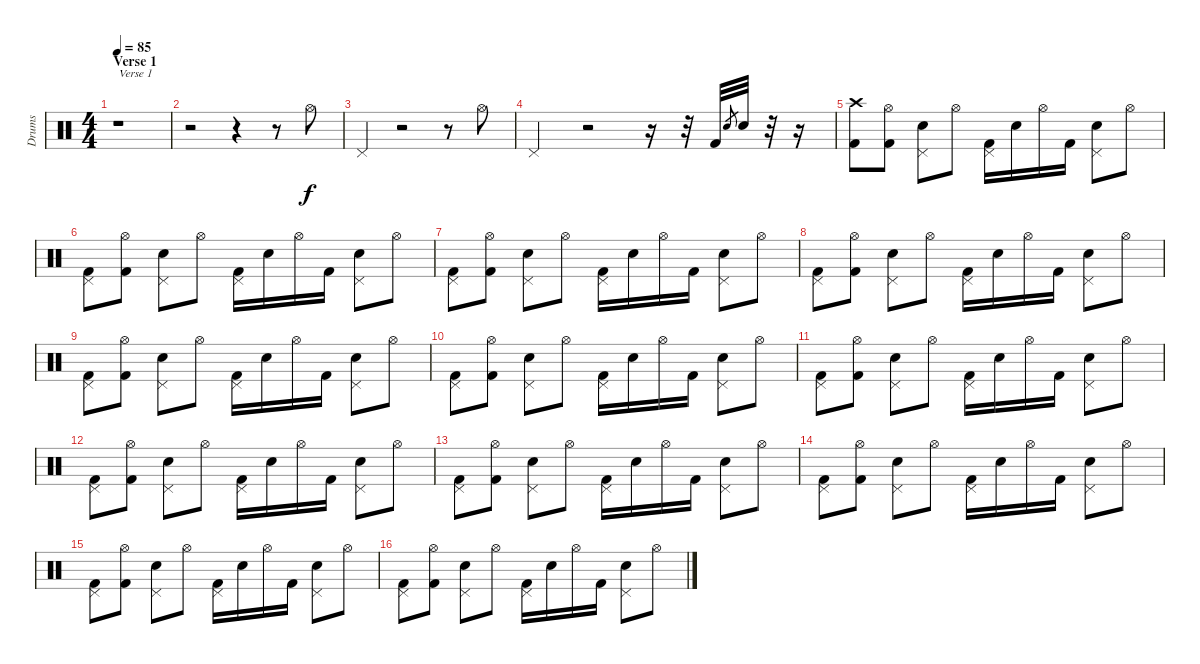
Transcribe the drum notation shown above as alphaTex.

\track ("Drums" "Drums") {instrument percussion}
\staff {score}
\articulation defaults
\ts (4 4)
\section ("" "Verse 1")
\tempo 85
\clef neutral
\ks c
r.1{txt "Verse 1" dy f} |
r.2 r.4 r.8 "Hi-Hat (open)".8 |
"Pedal Hi-Hat (hit)".4 r.2 r.8 "Hi-Hat (open)".8 |
"Pedal Hi-Hat (hit)".4 r.2 r.16 r.32 "Kick (hit) 2".32 "Electric Snare (hit)".8{gr} "Electric Snare (hit)".32 r.32 r.16 |
("Crash high (hit)" "Kick (hit) 2").8 ("Hi-Hat (open)" "Kick (hit) 2").8 ("Electric Snare (hit)" "Pedal Hi-Hat (hit)").8 "Hi-Hat (open)".8 ("Pedal Hi-Hat (hit)" "Kick (hit) 2").16 "Electric Snare (hit)".16 "Hi-Hat (open)".16 "Kick (hit) 2".16 ("Electric Snare (hit)" "Pedal Hi-Hat (hit)").8 "Hi-Hat (open)".8 |
("Pedal Hi-Hat (hit)" "Kick (hit) 2").8 ("Hi-Hat (open)" "Kick (hit) 2").8 ("Electric Snare (hit)" "Pedal Hi-Hat (hit)").8 "Hi-Hat (open)".8 ("Pedal Hi-Hat (hit)" "Kick (hit) 2").16 "Electric Snare (hit)".16 "Hi-Hat (open)".16 "Kick (hit) 2".16 ("Electric Snare (hit)" "Pedal Hi-Hat (hit)").8 "Hi-Hat (open)".8 |
("Pedal Hi-Hat (hit)" "Kick (hit) 2").8 ("Hi-Hat (open)" "Kick (hit) 2").8 ("Electric Snare (hit)" "Pedal Hi-Hat (hit)").8 "Hi-Hat (open)".8 ("Pedal Hi-Hat (hit)" "Kick (hit) 2").16 "Electric Snare (hit)".16 "Hi-Hat (open)".16 "Kick (hit) 2".16 ("Electric Snare (hit)" "Pedal Hi-Hat (hit)").8 "Hi-Hat (open)".8 |
("Pedal Hi-Hat (hit)" "Kick (hit) 2").8 ("Hi-Hat (open)" "Kick (hit) 2").8 ("Electric Snare (hit)" "Pedal Hi-Hat (hit)").8 "Hi-Hat (open)".8 ("Pedal Hi-Hat (hit)" "Kick (hit) 2").16 "Electric Snare (hit)".16 "Hi-Hat (open)".16 "Kick (hit) 2".16 ("Electric Snare (hit)" "Pedal Hi-Hat (hit)").8 "Hi-Hat (open)".8 |
("Pedal Hi-Hat (hit)" "Kick (hit) 2").8 ("Hi-Hat (open)" "Kick (hit) 2").8 ("Electric Snare (hit)" "Pedal Hi-Hat (hit)").8 "Hi-Hat (open)".8 ("Pedal Hi-Hat (hit)" "Kick (hit) 2").16 "Electric Snare (hit)".16 "Hi-Hat (open)".16 "Kick (hit) 2".16 ("Electric Snare (hit)" "Pedal Hi-Hat (hit)").8 "Hi-Hat (open)".8 |
("Pedal Hi-Hat (hit)" "Kick (hit) 2").8 ("Hi-Hat (open)" "Kick (hit) 2").8 ("Electric Snare (hit)" "Pedal Hi-Hat (hit)").8 "Hi-Hat (open)".8 ("Pedal Hi-Hat (hit)" "Kick (hit) 2").16 "Electric Snare (hit)".16 "Hi-Hat (open)".16 "Kick (hit) 2".16 ("Electric Snare (hit)" "Pedal Hi-Hat (hit)").8 "Hi-Hat (open)".8 |
("Pedal Hi-Hat (hit)" "Kick (hit) 2").8 ("Hi-Hat (open)" "Kick (hit) 2").8 ("Electric Snare (hit)" "Pedal Hi-Hat (hit)").8 "Hi-Hat (open)".8 ("Pedal Hi-Hat (hit)" "Kick (hit) 2").16 "Electric Snare (hit)".16 "Hi-Hat (open)".16 "Kick (hit) 2".16 ("Electric Snare (hit)" "Pedal Hi-Hat (hit)").8 "Hi-Hat (open)".8 |
("Pedal Hi-Hat (hit)" "Kick (hit) 2").8 ("Hi-Hat (open)" "Kick (hit) 2").8 ("Electric Snare (hit)" "Pedal Hi-Hat (hit)").8 "Hi-Hat (open)".8 ("Pedal Hi-Hat (hit)" "Kick (hit) 2").16 "Electric Snare (hit)".16 "Hi-Hat (open)".16 "Kick (hit) 2".16 ("Electric Snare (hit)" "Pedal Hi-Hat (hit)").8 "Hi-Hat (open)".8 |
("Pedal Hi-Hat (hit)" "Kick (hit) 2").8 ("Hi-Hat (open)" "Kick (hit) 2").8 ("Electric Snare (hit)" "Pedal Hi-Hat (hit)").8 "Hi-Hat (open)".8 ("Pedal Hi-Hat (hit)" "Kick (hit) 2").16 "Electric Snare (hit)".16 "Hi-Hat (open)".16 "Kick (hit) 2".16 ("Electric Snare (hit)" "Pedal Hi-Hat (hit)").8 "Hi-Hat (open)".8 |
("Pedal Hi-Hat (hit)" "Kick (hit) 2").8 ("Hi-Hat (open)" "Kick (hit) 2").8 ("Electric Snare (hit)" "Pedal Hi-Hat (hit)").8 "Hi-Hat (open)".8 ("Pedal Hi-Hat (hit)" "Kick (hit) 2").16 "Electric Snare (hit)".16 "Hi-Hat (open)".16 "Kick (hit) 2".16 ("Electric Snare (hit)" "Pedal Hi-Hat (hit)").8 "Hi-Hat (open)".8 |
("Pedal Hi-Hat (hit)" "Kick (hit) 2").8 ("Hi-Hat (open)" "Kick (hit) 2").8 ("Electric Snare (hit)" "Pedal Hi-Hat (hit)").8 "Hi-Hat (open)".8 ("Pedal Hi-Hat (hit)" "Kick (hit) 2").16 "Electric Snare (hit)".16 "Hi-Hat (open)".16 "Kick (hit) 2".16 ("Electric Snare (hit)" "Pedal Hi-Hat (hit)").8 "Hi-Hat (open)".8 |
("Pedal Hi-Hat (hit)" "Kick (hit) 2").8 ("Hi-Hat (open)" "Kick (hit) 2").8 ("Electric Snare (hit)" "Pedal Hi-Hat (hit)").8 "Hi-Hat (open)".8 ("Pedal Hi-Hat (hit)" "Kick (hit) 2").16 "Electric Snare (hit)".16 "Hi-Hat (open)".16 "Kick (hit) 2".16 ("Electric Snare (hit)" "Pedal Hi-Hat (hit)").8 "Hi-Hat (open)".8
